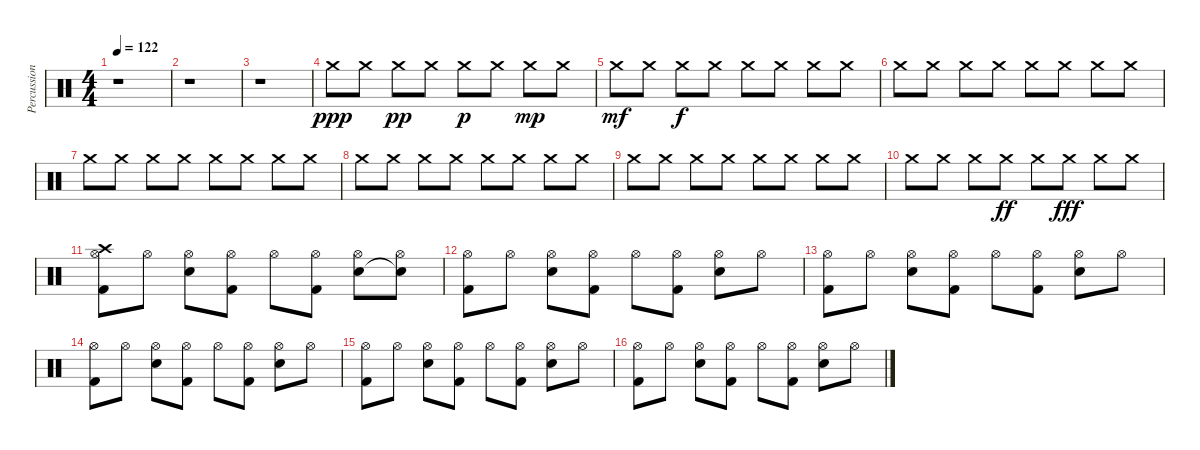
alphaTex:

\track ("Percussions" "Percussion") {instrument percussion}
\staff {score}
\articulation defaults
\ts (4 4)
\tempo 122
\clef neutral
\ks c
r.1{dy ppp} |
r.1 |
r.1 |
"Crash medium (hit)".8 "Crash medium (hit)".8 "Crash medium (hit)".8{dy pp} "Crash medium (hit)".8 "Crash medium (hit)".8{dy p} "Crash medium (hit)".8 "Crash medium (hit)".8{dy mp} "Crash medium (hit)".8 |
"Crash medium (hit)".8{dy mf} "Crash medium (hit)".8 "Crash medium (hit)".8{dy f} "Crash medium (hit)".8 "Crash medium (hit)".8 "Crash medium (hit)".8 "Crash medium (hit)".8 "Crash medium (hit)".8 |
"Crash medium (hit)".8 "Crash medium (hit)".8 "Crash medium (hit)".8 "Crash medium (hit)".8 "Crash medium (hit)".8 "Crash medium (hit)".8 "Crash medium (hit)".8 "Crash medium (hit)".8 |
"Crash medium (hit)".8 "Crash medium (hit)".8 "Crash medium (hit)".8 "Crash medium (hit)".8 "Crash medium (hit)".8 "Crash medium (hit)".8 "Crash medium (hit)".8 "Crash medium (hit)".8 |
"Crash medium (hit)".8 "Crash medium (hit)".8 "Crash medium (hit)".8 "Crash medium (hit)".8 "Crash medium (hit)".8 "Crash medium (hit)".8 "Crash medium (hit)".8 "Crash medium (hit)".8 |
"Crash medium (hit)".8 "Crash medium (hit)".8 "Crash medium (hit)".8 "Crash medium (hit)".8 "Crash medium (hit)".8 "Crash medium (hit)".8 "Crash medium (hit)".8 "Crash medium (hit)".8 |
"Crash medium (hit)".8 "Crash medium (hit)".8 "Crash medium (hit)".8 "Crash medium (hit)".8{dy ff} "Crash medium (hit)".8 "Crash medium (hit)".8{dy fff} "Crash medium (hit)".8 "Crash medium (hit)".8 |
("Hi-Hat (open)" "Crash high (hit)" "Kick (hit) 2").8 "Hi-Hat (open)".8 ("Hi-Hat (open)" "Electric Snare (hit)").8 ("Hi-Hat (open)" "Kick (hit) 2").8 "Hi-Hat (open)".8 ("Hi-Hat (open)" "Kick (hit) 2").8 ("Hi-Hat (open)" "Electric Snare (hit)").8 ("Hi-Hat (open)" "Snare (hit)"{t}).8 |
("Hi-Hat (open)" "Kick (hit) 2").8 "Hi-Hat (open)".8 ("Hi-Hat (open)" "Electric Snare (hit)").8 ("Hi-Hat (open)" "Kick (hit) 2").8 "Hi-Hat (open)".8 ("Hi-Hat (open)" "Kick (hit) 2").8 ("Hi-Hat (open)" "Electric Snare (hit)").8 "Hi-Hat (open)".8 |
("Hi-Hat (open)" "Kick (hit) 2").8 "Hi-Hat (open)".8 ("Hi-Hat (open)" "Electric Snare (hit)").8 ("Hi-Hat (open)" "Kick (hit) 2").8 "Hi-Hat (open)".8 ("Hi-Hat (open)" "Kick (hit) 2").8 ("Hi-Hat (open)" "Electric Snare (hit)").8 "Hi-Hat (open)".8 |
("Hi-Hat (open)" "Kick (hit) 2").8 "Hi-Hat (open)".8 ("Hi-Hat (open)" "Electric Snare (hit)").8 ("Hi-Hat (open)" "Kick (hit) 2").8 "Hi-Hat (open)".8 ("Hi-Hat (open)" "Kick (hit) 2").8 ("Hi-Hat (open)" "Electric Snare (hit)").8 "Hi-Hat (open)".8 |
("Hi-Hat (open)" "Kick (hit) 2").8 "Hi-Hat (open)".8 ("Hi-Hat (open)" "Electric Snare (hit)").8 ("Hi-Hat (open)" "Kick (hit) 2").8 "Hi-Hat (open)".8 ("Hi-Hat (open)" "Kick (hit) 2").8 ("Hi-Hat (open)" "Electric Snare (hit)").8 "Hi-Hat (open)".8 |
("Hi-Hat (open)" "Kick (hit) 2").8 "Hi-Hat (open)".8 ("Hi-Hat (open)" "Electric Snare (hit)").8 ("Hi-Hat (open)" "Kick (hit) 2").8 "Hi-Hat (open)".8 ("Hi-Hat (open)" "Kick (hit) 2").8 ("Hi-Hat (open)" "Electric Snare (hit)").8 "Hi-Hat (open)".8
